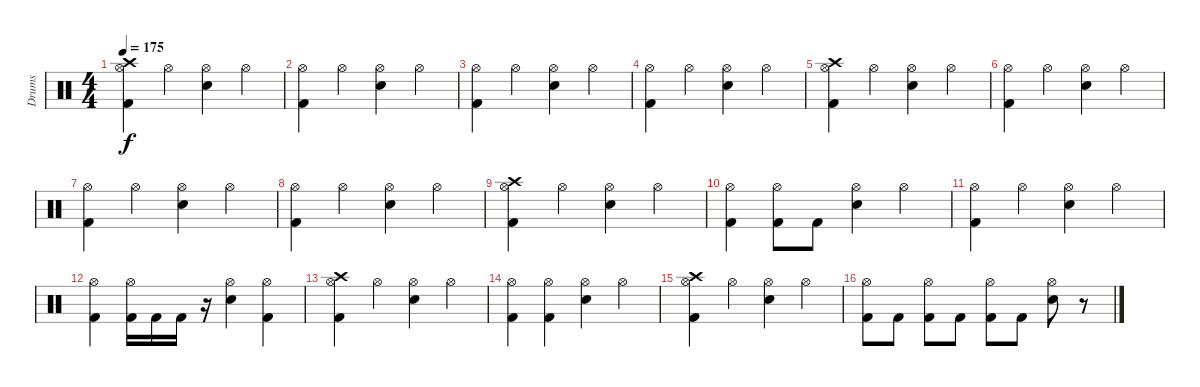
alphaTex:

\track ("Drums" "Drums") {instrument percussion}
\staff {score}
\articulation defaults
\ts (4 4)
\tempo 175
\clef neutral
\ks c
("Crash high (hit)" "Hi-Hat (open)" "Kick (hit) 2").4{dy f} "Hi-Hat (open)".4 ("Hi-Hat (open)" "Snare (hit) 2").4 "Hi-Hat (open)".4 |
("Hi-Hat (open)" "Kick (hit) 2").4 "Hi-Hat (open)".4 ("Hi-Hat (open)" "Snare (hit) 2").4 "Hi-Hat (open)".4 |
("Hi-Hat (open)" "Kick (hit) 2").4 "Hi-Hat (open)".4 ("Hi-Hat (open)" "Snare (hit) 2").4 "Hi-Hat (open)".4 |
("Hi-Hat (open)" "Kick (hit) 2").4 "Hi-Hat (open)".4 ("Hi-Hat (open)" "Snare (hit) 2").4 "Hi-Hat (open)".4 |
("Crash high (hit)" "Hi-Hat (open)" "Kick (hit) 2").4 "Hi-Hat (open)".4 ("Hi-Hat (open)" "Snare (hit) 2").4 "Hi-Hat (open)".4 |
("Hi-Hat (open)" "Kick (hit) 2").4 "Hi-Hat (open)".4 ("Hi-Hat (open)" "Snare (hit) 2").4 "Hi-Hat (open)".4 |
("Hi-Hat (open)" "Kick (hit) 2").4 "Hi-Hat (open)".4 ("Hi-Hat (open)" "Snare (hit) 2").4 "Hi-Hat (open)".4 |
("Hi-Hat (open)" "Kick (hit) 2").4 "Hi-Hat (open)".4 ("Hi-Hat (open)" "Snare (hit) 2").4 "Hi-Hat (open)".4 |
("Crash high (hit)" "Hi-Hat (open)" "Kick (hit) 2").4 "Hi-Hat (open)".4 ("Hi-Hat (open)" "Snare (hit) 2").4 "Hi-Hat (open)".4 |
("Hi-Hat (open)" "Kick (hit) 2").4 ("Hi-Hat (open)" "Kick (hit) 2").8 "Kick (hit) 2".8 ("Hi-Hat (open)" "Snare (hit) 2").4 "Hi-Hat (open)".4 |
("Hi-Hat (open)" "Kick (hit) 2").4 "Hi-Hat (open)".4 ("Hi-Hat (open)" "Snare (hit) 2").4 "Hi-Hat (open)".4 |
("Hi-Hat (open)" "Kick (hit) 2").4 ("Hi-Hat (open)" "Kick (hit) 2").16 "Kick (hit) 2".16 "Kick (hit) 2".16 r.16 ("Hi-Hat (open)" "Snare (hit) 2").4 ("Hi-Hat (open)" "Kick (hit) 2").4 |
("Crash high (hit)" "Hi-Hat (open)" "Kick (hit) 2").4 "Hi-Hat (open)".4 ("Hi-Hat (open)" "Snare (hit) 2").4 "Hi-Hat (open)".4 |
("Hi-Hat (open)" "Kick (hit) 2").4 ("Hi-Hat (open)" "Kick (hit) 2").4 ("Hi-Hat (open)" "Snare (hit) 2").4 "Hi-Hat (open)".4 |
("Crash high (hit)" "Hi-Hat (open)" "Kick (hit) 2").4 "Hi-Hat (open)".4 ("Hi-Hat (open)" "Snare (hit) 2").4 "Hi-Hat (open)".4 |
("Hi-Hat (open)" "Kick (hit) 2").8 "Kick (hit) 2".8 ("Hi-Hat (open)" "Kick (hit) 2").8 "Kick (hit) 2".8 ("Hi-Hat (open)" "Kick (hit) 2").8 "Kick (hit) 2".8 ("Hi-Hat (open)" "Snare (hit) 2").8 r.8
